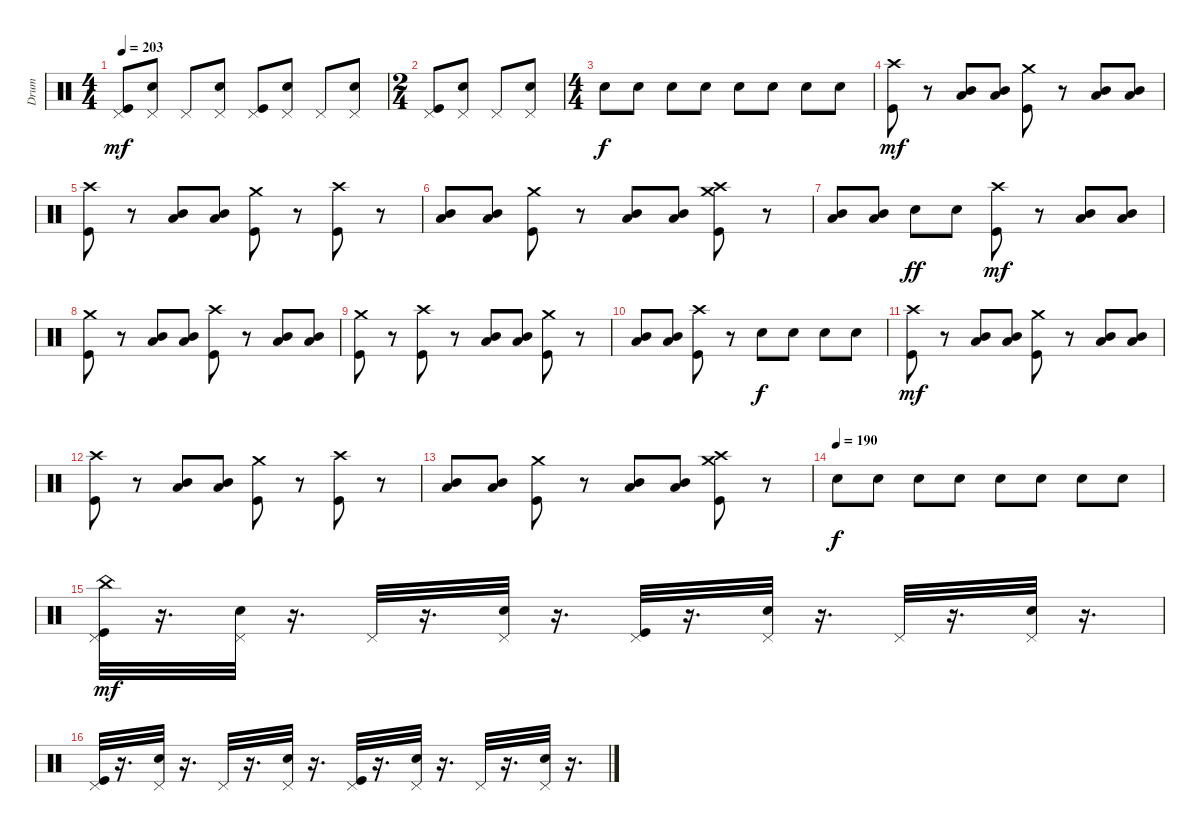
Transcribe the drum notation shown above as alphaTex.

\track ("Drum" "Drum") {instrument percussion}
\staff {score}
\articulation defaults
\ts (4 4)
\tempo 203
\clef neutral
\ks c
("Pedal Hi-Hat (hit)" "Kick (hit)").8{dy mf} ("Pedal Hi-Hat (hit)" "Snare (hit) 2").8 "Pedal Hi-Hat (hit)".8 ("Pedal Hi-Hat (hit)" "Snare (hit) 2").8 ("Pedal Hi-Hat (hit)" "Kick (hit)").8 ("Pedal Hi-Hat (hit)" "Snare (hit) 2").8 "Pedal Hi-Hat (hit)".8 ("Pedal Hi-Hat (hit)" "Snare (hit) 2").8 |
\ts (2 4)
("Pedal Hi-Hat (hit)" "Kick (hit)").8 ("Pedal Hi-Hat (hit)" "Snare (hit) 2").8 "Pedal Hi-Hat (hit)".8 ("Pedal Hi-Hat (hit)" "Snare (hit) 2").8 |
\ts (4 4)
"Snare (hit) 2".8{dy f} "Snare (hit) 2".8 "Snare (hit) 2".8 "Snare (hit) 2".8 "Snare (hit) 2".8 "Snare (hit) 2".8 "Snare (hit) 2".8 "Snare (hit) 2".8 |
("Crash high (hit)" "Kick (hit)").8{dy mf} r.8 ("Low Tom (hit)" "Mid Tom (hit)").8 ("Low Tom (hit)" "Mid Tom (hit)").8 ("Crash medium (hit)" "Kick (hit)").8 r.8 ("Low Tom (hit)" "Mid Tom (hit)").8 ("Low Tom (hit)" "Mid Tom (hit)").8 |
("Crash high (hit)" "Kick (hit)").8 r.8 ("Low Tom (hit)" "Mid Tom (hit)").8 ("Low Tom (hit)" "Mid Tom (hit)").8 ("Crash medium (hit)" "Kick (hit)").8 r.8 ("Crash high (hit)" "Kick (hit)").8 r.8 |
("Low Tom (hit)" "Mid Tom (hit)").8 ("Low Tom (hit)" "Mid Tom (hit)").8 ("Crash medium (hit)" "Kick (hit)").8 r.8 ("Low Tom (hit)" "Mid Tom (hit)").8 ("Low Tom (hit)" "Mid Tom (hit)").8 ("Crash high (hit)" "Crash medium (hit)" "Kick (hit)").8 r.8 |
("Low Tom (hit)" "Mid Tom (hit)").8 ("Low Tom (hit)" "Mid Tom (hit)").8 "Snare (hit) 2".8{dy ff} "Snare (hit) 2".8 ("Crash high (hit)" "Kick (hit)").8{dy mf} r.8 ("Low Tom (hit)" "Mid Tom (hit)").8 ("Low Tom (hit)" "Mid Tom (hit)").8 |
("Crash medium (hit)" "Kick (hit)").8 r.8 ("Low Tom (hit)" "Mid Tom (hit)").8 ("Low Tom (hit)" "Mid Tom (hit)").8 ("Crash high (hit)" "Kick (hit)").8 r.8 ("Low Tom (hit)" "Mid Tom (hit)").8 ("Low Tom (hit)" "Mid Tom (hit)").8 |
("Crash medium (hit)" "Kick (hit)").8 r.8 ("Crash high (hit)" "Kick (hit)").8 r.8 ("Low Tom (hit)" "Mid Tom (hit)").8 ("Low Tom (hit)" "Mid Tom (hit)").8 ("Crash medium (hit)" "Kick (hit)").8 r.8 |
("Low Tom (hit)" "Mid Tom (hit)").8 ("Low Tom (hit)" "Mid Tom (hit)").8 ("Crash high (hit)" "Kick (hit)").8 r.8 "Snare (hit) 2".8{dy f} "Snare (hit) 2".8 "Snare (hit) 2".8 "Snare (hit) 2".8 |
("Crash high (hit)" "Kick (hit)").8{dy mf} r.8 ("Low Tom (hit)" "Mid Tom (hit)").8 ("Low Tom (hit)" "Mid Tom (hit)").8 ("Crash medium (hit)" "Kick (hit)").8 r.8 ("Low Tom (hit)" "Mid Tom (hit)").8 ("Low Tom (hit)" "Mid Tom (hit)").8 |
("Crash high (hit)" "Kick (hit)").8 r.8 ("Low Tom (hit)" "Mid Tom (hit)").8 ("Low Tom (hit)" "Mid Tom (hit)").8 ("Crash medium (hit)" "Kick (hit)").8 r.8 ("Crash high (hit)" "Kick (hit)").8 r.8 |
("Low Tom (hit)" "Mid Tom (hit)").8 ("Low Tom (hit)" "Mid Tom (hit)").8 ("Crash medium (hit)" "Kick (hit)").8 r.8 ("Low Tom (hit)" "Mid Tom (hit)").8 ("Low Tom (hit)" "Mid Tom (hit)").8 ("Crash high (hit)" "Crash medium (hit)" "Kick (hit)").8 r.8 |
\tempo (190)
"Snare (hit) 2".8{dy f} "Snare (hit) 2".8 "Snare (hit) 2".8 "Snare (hit) 2".8 "Snare (hit) 2".8 "Snare (hit) 2".8 "Snare (hit) 2".8 "Snare (hit) 2".8 |
("Pedal Hi-Hat (hit)" "Kick (hit)" "China (hit)").32{dy mf} r.16{d} ("Pedal Hi-Hat (hit)" "Snare (hit) 2").32 r.16{d} "Pedal Hi-Hat (hit)".32 r.16{d} ("Pedal Hi-Hat (hit)" "Snare (hit) 2").32 r.16{d} ("Pedal Hi-Hat (hit)" "Kick (hit)").32 r.16{d} ("Pedal Hi-Hat (hit)" "Snare (hit) 2").32 r.16{d} "Pedal Hi-Hat (hit)".32 r.16{d} ("Pedal Hi-Hat (hit)" "Snare (hit) 2").32 r.16{d} |
("Pedal Hi-Hat (hit)" "Kick (hit)").32 r.16{d} ("Pedal Hi-Hat (hit)" "Snare (hit) 2").32 r.16{d} "Pedal Hi-Hat (hit)".32 r.16{d} ("Pedal Hi-Hat (hit)" "Snare (hit) 2").32 r.16{d} ("Pedal Hi-Hat (hit)" "Kick (hit)").32 r.16{d} ("Pedal Hi-Hat (hit)" "Snare (hit) 2").32 r.16{d} "Pedal Hi-Hat (hit)".32 r.16{d} ("Pedal Hi-Hat (hit)" "Snare (hit) 2").32 r.16{d}
